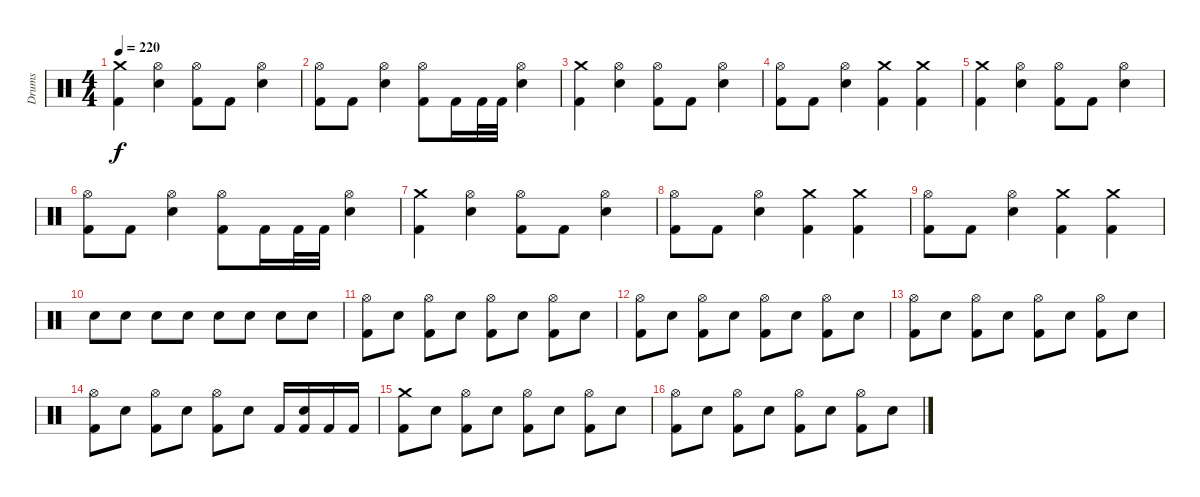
\track ("Drums" "Drums") {instrument percussion}
\staff {score}
\articulation defaults
\ts (4 4)
\tempo 220
\clef neutral
\ks c
("Kick (hit) 2" "Crash medium (hit)").4{dy f} ("Hi-Hat (open)" "Electric Snare (hit)").4 ("Hi-Hat (open)" "Kick (hit) 2").8 "Kick (hit) 2".8 ("Hi-Hat (open)" "Electric Snare (hit)").4 |
("Hi-Hat (open)" "Kick (hit) 2").8 "Kick (hit) 2".8 ("Hi-Hat (open)" "Electric Snare (hit)").4 ("Hi-Hat (open)" "Kick (hit) 2").8 "Kick (hit) 2".16 "Kick (hit) 2".32 "Kick (hit) 2".32 ("Hi-Hat (open)" "Electric Snare (hit)").4 |
("Kick (hit) 2" "Crash medium (hit)").4 ("Hi-Hat (open)" "Electric Snare (hit)").4 ("Hi-Hat (open)" "Kick (hit) 2").8 "Kick (hit) 2".8 ("Hi-Hat (open)" "Electric Snare (hit)").4 |
("Hi-Hat (open)" "Kick (hit) 2").8 "Kick (hit) 2".8 ("Hi-Hat (open)" "Electric Snare (hit)").4 ("Kick (hit) 2" "Crash medium (hit)").4 ("Kick (hit) 2" "Crash medium (hit)").4 |
("Kick (hit) 2" "Crash medium (hit)").4 ("Hi-Hat (open)" "Electric Snare (hit)").4 ("Hi-Hat (open)" "Kick (hit) 2").8 "Kick (hit) 2".8 ("Hi-Hat (open)" "Electric Snare (hit)").4 |
("Hi-Hat (open)" "Kick (hit) 2").8 "Kick (hit) 2".8 ("Hi-Hat (open)" "Electric Snare (hit)").4 ("Hi-Hat (open)" "Kick (hit) 2").8 "Kick (hit) 2".16 "Kick (hit) 2".32 "Kick (hit) 2".32 ("Hi-Hat (open)" "Electric Snare (hit)").4 |
("Kick (hit) 2" "Crash medium (hit)").4 ("Hi-Hat (open)" "Electric Snare (hit)").4 ("Hi-Hat (open)" "Kick (hit) 2").8 "Kick (hit) 2".8 ("Hi-Hat (open)" "Electric Snare (hit)").4 |
("Hi-Hat (open)" "Kick (hit) 2").8 "Kick (hit) 2".8 ("Hi-Hat (open)" "Electric Snare (hit)").4 ("Kick (hit) 2" "Crash medium (hit)").4 ("Kick (hit) 2" "Crash medium (hit)").4 |
("Hi-Hat (open)" "Kick (hit) 2").8 "Kick (hit) 2".8 ("Hi-Hat (open)" "Electric Snare (hit)").4 ("Kick (hit) 2" "Crash medium (hit)").4 ("Kick (hit) 2" "Crash medium (hit)").4 |
"Electric Snare (hit)".8 "Electric Snare (hit)".8 "Electric Snare (hit)".8 "Electric Snare (hit)".8 "Electric Snare (hit)".8 "Electric Snare (hit)".8 "Electric Snare (hit)".8 "Electric Snare (hit)".8 |
("Hi-Hat (open)" "Kick (hit) 2").8 "Electric Snare (hit)".8 ("Hi-Hat (open)" "Kick (hit) 2").8 "Electric Snare (hit)".8 ("Hi-Hat (open)" "Kick (hit) 2").8 "Electric Snare (hit)".8 ("Hi-Hat (open)" "Kick (hit) 2").8 "Electric Snare (hit)".8 |
("Hi-Hat (open)" "Kick (hit) 2").8 "Electric Snare (hit)".8 ("Hi-Hat (open)" "Kick (hit) 2").8 "Electric Snare (hit)".8 ("Hi-Hat (open)" "Kick (hit) 2").8 "Electric Snare (hit)".8 ("Hi-Hat (open)" "Kick (hit) 2").8 "Electric Snare (hit)".8 |
("Hi-Hat (open)" "Kick (hit) 2").8 "Electric Snare (hit)".8 ("Hi-Hat (open)" "Kick (hit) 2").8 "Electric Snare (hit)".8 ("Hi-Hat (open)" "Kick (hit) 2").8 "Electric Snare (hit)".8 ("Hi-Hat (open)" "Kick (hit) 2").8 "Electric Snare (hit)".8 |
("Hi-Hat (open)" "Kick (hit) 2").8 "Electric Snare (hit)".8 ("Hi-Hat (open)" "Kick (hit) 2").8 "Electric Snare (hit)".8 ("Hi-Hat (open)" "Kick (hit) 2").8 "Electric Snare (hit)".8 "Kick (hit) 2".16 ("Kick (hit) 2" "Electric Snare (hit)").16 "Kick (hit) 2".16 "Kick (hit) 2".16 |
("Crash medium (hit)" "Kick (hit) 2").8 "Electric Snare (hit)".8 ("Hi-Hat (open)" "Kick (hit) 2").8 "Electric Snare (hit)".8 ("Hi-Hat (open)" "Kick (hit) 2").8 "Electric Snare (hit)".8 ("Hi-Hat (open)" "Kick (hit) 2").8 "Electric Snare (hit)".8 |
("Hi-Hat (open)" "Kick (hit) 2").8 "Electric Snare (hit)".8 ("Hi-Hat (open)" "Kick (hit) 2").8 "Electric Snare (hit)".8 ("Hi-Hat (open)" "Kick (hit) 2").8 "Electric Snare (hit)".8 ("Hi-Hat (open)" "Kick (hit) 2").8 "Electric Snare (hit)".8
